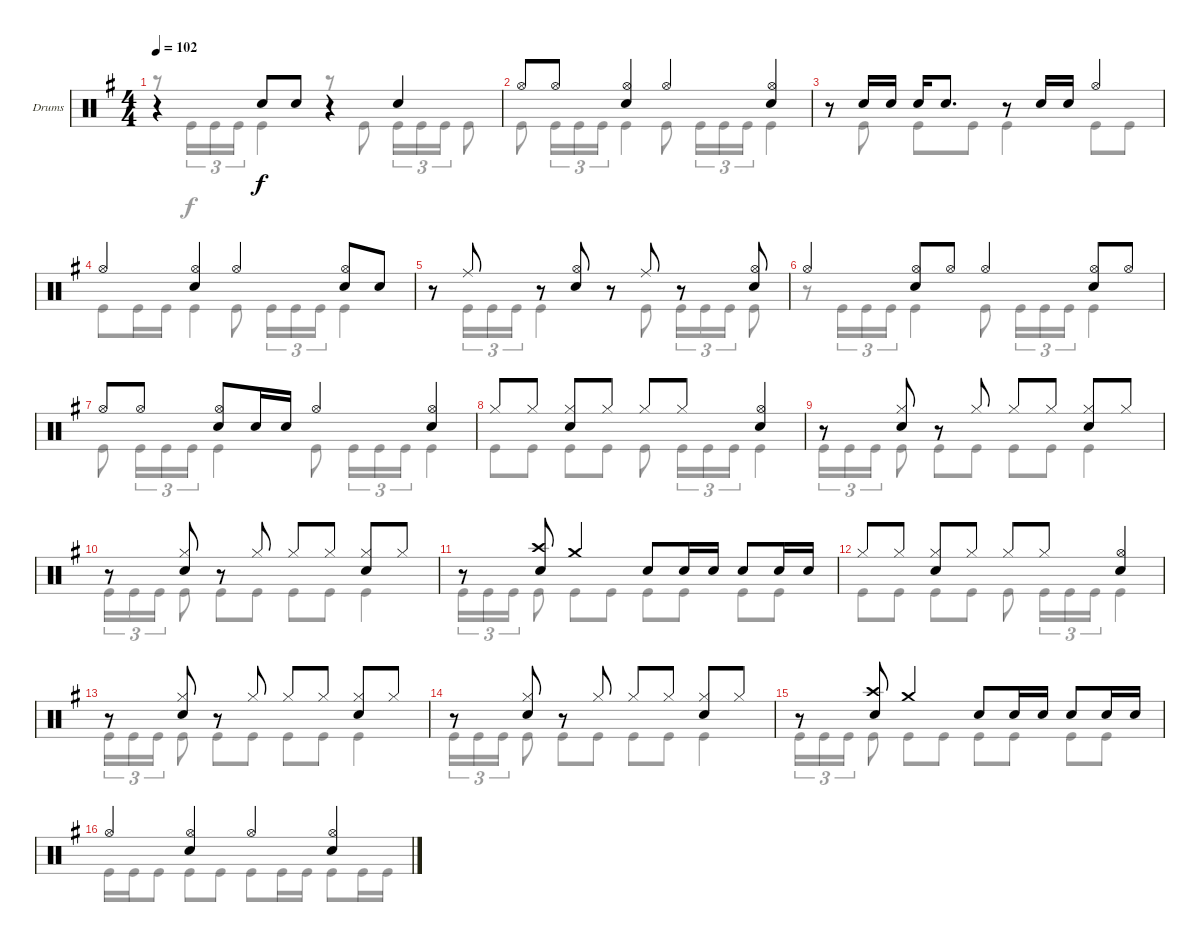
\bracketExtendMode groupsimilarinstruments
\firstSystemTrackNameOrientation horizontal
\otherSystemsTrackNameOrientation horizontal
\track ("Drumkit" "Drums") {instrument percussion}
\staff {score}
\articulation defaults
\voice
\ts (4 4)
\tempo 102
\clef neutral
\ks g
r.4{dy f} "Snare (hit) 2".8 "Snare (hit) 2".8 r.4 "Snare (hit) 2".4 |
"Hi-Hat (open)".8 "Hi-Hat (open)".8 ("Hi-Hat (open)" "Snare (hit) 2").4 "Hi-Hat (open)".4 ("Hi-Hat (open)" "Snare (hit) 2").4 |
r.8 "Snare (hit) 2".16 "Snare (hit) 2".16 "Snare (hit) 2".16 "Snare (hit) 2".8{d} r.8 "Snare (hit) 2".16 "Snare (hit) 2".16 "Hi-Hat (open)".4 |
"Hi-Hat (open)".4 ("Hi-Hat (open)" "Snare (hit) 2").4 "Hi-Hat (open)".4 ("Hi-Hat (open)" "Snare (hit) 2").8 "Snare (hit) 2".8 |
r.8 "Ride (middle)".8 r.8 ("Hi-Hat (open)" "Snare (hit) 2").8 r.8 "Ride (middle)".8 r.8 ("Hi-Hat (open)" "Snare (hit) 2").8 |
"Hi-Hat (open)".4 ("Hi-Hat (open)" "Snare (hit) 2").8 "Hi-Hat (open)".8 "Hi-Hat (open)".4 ("Hi-Hat (open)" "Snare (hit) 2").8 "Hi-Hat (open)".8 |
"Hi-Hat (open)".8 "Hi-Hat (open)".8 ("Hi-Hat (open)" "Snare (hit) 2").8 "Snare (hit) 2".16 "Snare (hit) 2".16 "Hi-Hat (open)".4 ("Hi-Hat (open)" "Snare (hit) 2").4 |
"Hi-Hat (closed)".8 "Hi-Hat (closed)".8 ("Hi-Hat (closed)" "Snare (hit) 2").8 "Hi-Hat (closed)".8 "Hi-Hat (closed)".8 "Hi-Hat (closed)".8 ("Hi-Hat (open)" "Snare (hit) 2").4 |
r.8 ("Hi-Hat (closed)" "Snare (hit) 2").8 r.8 "Hi-Hat (closed)".8 "Hi-Hat (closed)".8 "Hi-Hat (closed)".8 ("Hi-Hat (closed)" "Snare (hit) 2").8 "Hi-Hat (closed)".8 |
r.8 ("Hi-Hat (closed)" "Snare (hit) 2").8 r.8 "Hi-Hat (closed)".8 "Hi-Hat (closed)".8 "Hi-Hat (closed)".8 ("Hi-Hat (closed)" "Snare (hit) 2").8 "Hi-Hat (closed)".8 |
r.8 ("Crash high (hit)" "Snare (hit) 2").8 "Crash medium (hit)".4 "Snare (hit) 2".8 "Snare (hit) 2".16 "Snare (hit) 2".16 "Snare (hit) 2".8 "Snare (hit) 2".16 "Snare (hit) 2".16 |
"Hi-Hat (closed)".8 "Hi-Hat (closed)".8 ("Hi-Hat (closed)" "Snare (hit) 2").8 "Hi-Hat (closed)".8 "Hi-Hat (closed)".8 "Hi-Hat (closed)".8 ("Hi-Hat (open)" "Snare (hit) 2").4 |
r.8 ("Hi-Hat (closed)" "Snare (hit) 2").8 r.8 "Hi-Hat (closed)".8 "Hi-Hat (closed)".8 "Hi-Hat (closed)".8 ("Hi-Hat (closed)" "Snare (hit) 2").8 "Hi-Hat (closed)".8 |
r.8 ("Hi-Hat (closed)" "Snare (hit) 2").8 r.8 "Hi-Hat (closed)".8 "Hi-Hat (closed)".8 "Hi-Hat (closed)".8 ("Hi-Hat (closed)" "Snare (hit) 2").8 "Hi-Hat (closed)".8 |
r.8 ("Crash high (hit)" "Snare (hit) 2").8 "Crash medium (hit)".4 "Snare (hit) 2".8 "Snare (hit) 2".16 "Snare (hit) 2".16 "Snare (hit) 2".8 "Snare (hit) 2".16 "Snare (hit) 2".16 |
"Hi-Hat (open)".4 ("Hi-Hat (open)" "Snare (hit) 2").4 "Hi-Hat (open)".4 ("Hi-Hat (open)" "Snare (hit) 2").4
\voice
\clef neutral
\ottava regular
\simile none
\ks g
r.8{dy f} "Kick (hit)".16{tu (3 2)} "Kick (hit)".16{tu (3 2)} "Kick (hit)".16{tu (3 2)} "Kick (hit)".4 r.8 "Kick (hit)".8 "Kick (hit)".16{tu (3 2)} "Kick (hit)".16{tu (3 2)} "Kick (hit)".16{tu (3 2)} "Kick (hit)".8 |
"Kick (hit)".8 "Kick (hit)".16{tu (3 2)} "Kick (hit)".16{tu (3 2)} "Kick (hit)".16{tu (3 2)} "Kick (hit)".4 "Kick (hit)".8 "Kick (hit)".16{tu (3 2)} "Kick (hit)".16{tu (3 2)} "Kick (hit)".16{tu (3 2)} "Kick (hit)".4 |
r.8 "Kick (hit)".8 "Kick (hit)".8 "Kick (hit)".8 "Kick (hit)".4 "Kick (hit)".8 "Kick (hit)".8 |
"Kick (hit)".8 "Kick (hit)".16 "Kick (hit)".16 "Kick (hit)".4 "Kick (hit)".8 "Kick (hit)".16{tu (3 2)} "Kick (hit)".16{tu (3 2)} "Kick (hit)".16{tu (3 2)} "Kick (hit)".4 |
r.8 "Kick (hit)".16{tu (3 2)} "Kick (hit)".16{tu (3 2)} "Kick (hit)".16{tu (3 2)} "Kick (hit)".4 r.8 "Kick (hit)".8 "Kick (hit)".16{tu (3 2)} "Kick (hit)".16{tu (3 2)} "Kick (hit)".16{tu (3 2)} "Kick (hit)".8 |
r.8 "Kick (hit)".16{tu (3 2)} "Kick (hit)".16{tu (3 2)} "Kick (hit)".16{tu (3 2)} "Kick (hit)".4 "Kick (hit)".8 "Kick (hit)".16{tu (3 2)} "Kick (hit)".16{tu (3 2)} "Kick (hit)".16{tu (3 2)} "Kick (hit)".4 |
"Kick (hit)".8 "Kick (hit)".16{tu (3 2)} "Kick (hit)".16{tu (3 2)} "Kick (hit)".16{tu (3 2)} "Kick (hit)".4 "Kick (hit)".8 "Kick (hit)".16{tu (3 2)} "Kick (hit)".16{tu (3 2)} "Kick (hit)".16{tu (3 2)} "Kick (hit)".4 |
"Kick (hit)".8 "Kick (hit)".8 "Kick (hit)".8 "Kick (hit)".8 "Kick (hit)".8 "Kick (hit)".16{tu (3 2)} "Kick (hit)".16{tu (3 2)} "Kick (hit)".16{tu (3 2)} "Kick (hit)".4 |
"Kick (hit)".16{tu (3 2)} "Kick (hit)".16{tu (3 2)} "Kick (hit)".16{tu (3 2)} "Kick (hit)".8 "Kick (hit)".8 "Kick (hit)".8 "Kick (hit)".8 "Kick (hit)".8 "Kick (hit)".4 |
"Kick (hit)".16{tu (3 2)} "Kick (hit)".16{tu (3 2)} "Kick (hit)".16{tu (3 2)} "Kick (hit)".8 "Kick (hit)".8 "Kick (hit)".8 "Kick (hit)".8 "Kick (hit)".8 "Kick (hit)".4 |
"Kick (hit)".16{tu (3 2)} "Kick (hit)".16{tu (3 2)} "Kick (hit)".16{tu (3 2)} "Kick (hit)".8 "Kick (hit)".8 "Kick (hit)".8 "Kick (hit)".8 "Kick (hit)".8 "Kick (hit)".8 "Kick (hit)".8 |
"Kick (hit)".8 "Kick (hit)".8 "Kick (hit)".8 "Kick (hit)".8 "Kick (hit)".8 "Kick (hit)".16{tu (3 2)} "Kick (hit)".16{tu (3 2)} "Kick (hit)".16{tu (3 2)} "Kick (hit)".4 |
"Kick (hit)".16{tu (3 2)} "Kick (hit)".16{tu (3 2)} "Kick (hit)".16{tu (3 2)} "Kick (hit)".8 "Kick (hit)".8 "Kick (hit)".8 "Kick (hit)".8 "Kick (hit)".8 "Kick (hit)".4 |
"Kick (hit)".16{tu (3 2)} "Kick (hit)".16{tu (3 2)} "Kick (hit)".16{tu (3 2)} "Kick (hit)".8 "Kick (hit)".8 "Kick (hit)".8 "Kick (hit)".8 "Kick (hit)".8 "Kick (hit)".4 |
"Kick (hit)".16{tu (3 2)} "Kick (hit)".16{tu (3 2)} "Kick (hit)".16{tu (3 2)} "Kick (hit)".8 "Kick (hit)".8 "Kick (hit)".8 "Kick (hit)".8 "Kick (hit)".8 "Kick (hit)".8 "Kick (hit)".8 |
"Kick (hit)".16 "Kick (hit)".16 "Kick (hit)".8 "Kick (hit)".8 "Kick (hit)".8 "Kick (hit)".8 "Kick (hit)".16 "Kick (hit)".16 "Kick (hit)".8 "Kick (hit)".16 "Kick (hit)".16
